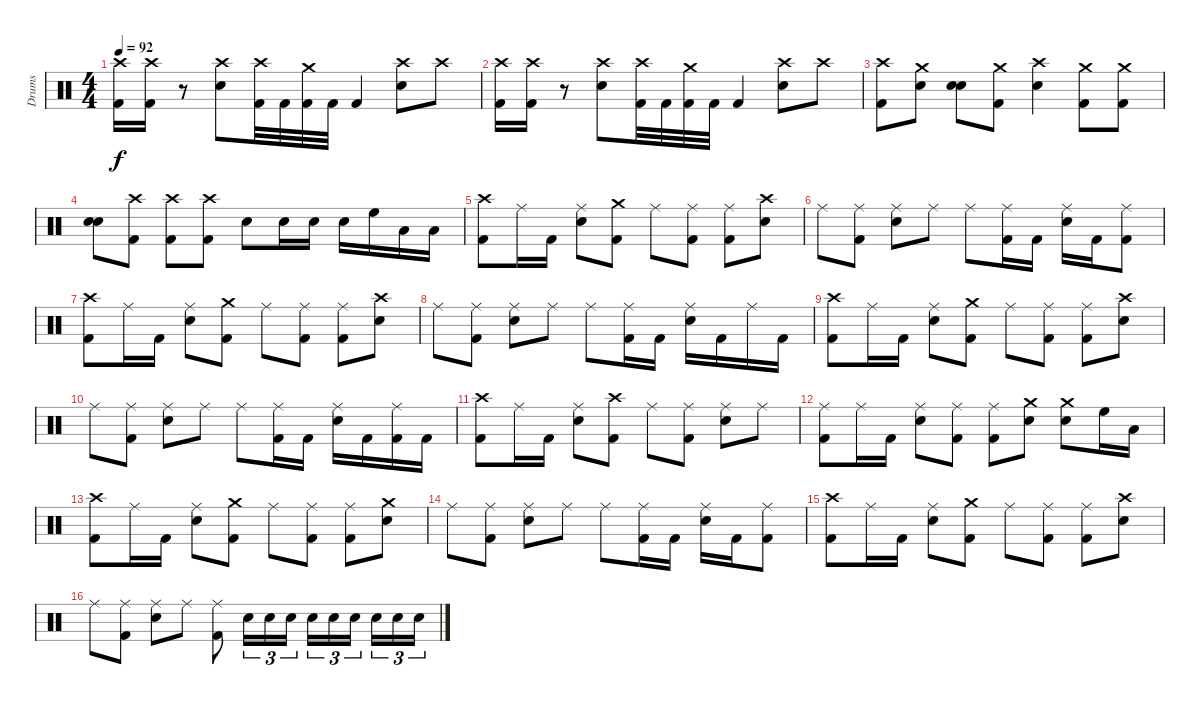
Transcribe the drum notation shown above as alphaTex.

\track ("Drums" "Drums") {instrument percussion}
\staff {score}
\articulation defaults
\ts (4 4)
\tempo 92
\clef neutral
\ks c
("Crash high (hit)" "Kick (hit) 2").16{dy f} ("Crash high (hit)" "Kick (hit) 2").16 r.8 ("Crash high (hit)" "Snare (hit) 2").8 ("Crash high (hit)" "Kick (hit) 2").32 "Kick (hit) 2".32 ("Crash medium (hit)" "Kick (hit) 2").32 "Kick (hit) 2".32 "Kick (hit) 2".4 ("Crash high (hit)" "Snare (hit) 2").8 "Crash high (hit)".8 |
("Crash high (hit)" "Kick (hit) 2").16 ("Crash high (hit)" "Kick (hit) 2").16 r.8 ("Crash high (hit)" "Snare (hit) 2").8 ("Crash high (hit)" "Kick (hit) 2").32 "Kick (hit) 2".32 ("Crash medium (hit)" "Kick (hit) 2").32 "Kick (hit) 2".32 "Kick (hit) 2".4 ("Crash high (hit)" "Snare (hit) 2").8 "Crash high (hit)".8 |
("Crash high (hit)" "Kick (hit) 2").8 ("Crash medium (hit)" "Snare (hit) 2").8 ("Snare (hit)" "Snare (hit)").8 ("Crash medium (hit)" "Kick (hit) 2").8 ("Crash high (hit)" "Snare (hit) 2").4 ("Crash medium (hit)" "Kick (hit) 2").8 ("Crash medium (hit)" "Kick (hit) 2").8 |
("Snare (hit)" "Snare (hit)").8 ("Crash high (hit)" "Kick (hit) 2").8 ("Crash high (hit)" "Kick (hit) 2").8 ("Crash high (hit)" "Kick (hit) 2").8 "Snare (hit) 2".8 "Snare (hit) 2".16 "Snare (hit) 2".16 "Snare (hit) 2".16 "High Floor Tom (hit)".16 "Low Tom (hit)".16 "Low Tom (hit)".16 |
("Crash high (hit)" "Kick (hit) 2").8 "Ride (middle)".16 "Kick (hit) 2".16 ("Ride (middle)" "Snare (hit) 2").8 ("Crash medium (hit)" "Kick (hit) 2").8 "Ride (middle)".8 ("Ride (middle)" "Kick (hit) 2").8 ("Ride (middle)" "Kick (hit) 2").8 ("Crash high (hit)" "Snare (hit) 2").8 |
"Ride (middle)".8 ("Ride (middle)" "Kick (hit) 2").8 ("Ride (middle)" "Snare (hit) 2").8 "Ride (middle)".8 "Ride (middle)".8 ("Ride (middle)" "Kick (hit) 2").16 "Kick (hit) 2".16 ("Ride (middle)" "Snare (hit) 2").16 "Kick (hit) 2".16 ("Ride (middle)" "Kick (hit) 2").8 |
("Crash high (hit)" "Kick (hit) 2").8 "Ride (middle)".16 "Kick (hit) 2".16 ("Ride (middle)" "Snare (hit) 2").8 ("Crash medium (hit)" "Kick (hit) 2").8 "Ride (middle)".8 ("Ride (middle)" "Kick (hit) 2").8 ("Ride (middle)" "Kick (hit) 2").8 ("Crash high (hit)" "Snare (hit) 2").8 |
"Ride (middle)".8 ("Ride (middle)" "Kick (hit) 2").8 ("Ride (middle)" "Snare (hit) 2").8 "Ride (middle)".8 "Ride (middle)".8 ("Ride (middle)" "Kick (hit) 2").16 "Kick (hit) 2".16 ("Ride (middle)" "Snare (hit) 2").16 "Kick (hit) 2".16 "Ride (middle)".16 "Kick (hit) 2".16 |
("Crash high (hit)" "Kick (hit) 2").8 "Ride (middle)".16 "Kick (hit) 2".16 ("Ride (middle)" "Snare (hit) 2").8 ("Crash medium (hit)" "Kick (hit) 2").8 "Ride (middle)".8 ("Ride (middle)" "Kick (hit) 2").8 ("Ride (middle)" "Kick (hit) 2").8 ("Crash high (hit)" "Snare (hit) 2").8 |
"Ride (middle)".8 ("Ride (middle)" "Kick (hit) 2").8 ("Ride (middle)" "Snare (hit) 2").8 "Ride (middle)".8 "Ride (middle)".8 ("Ride (middle)" "Kick (hit) 2").16 "Kick (hit) 2".16 ("Ride (middle)" "Snare (hit) 2").16 "Kick (hit) 2".16 ("Ride (middle)" "Kick (hit) 2").16 "Kick (hit) 2".16 |
("Crash high (hit)" "Kick (hit) 2").8 "Ride (middle)".16 "Kick (hit) 2".16 ("Ride (middle)" "Snare (hit) 2").8 ("Crash high (hit)" "Kick (hit) 2").8 "Ride (middle)".8 ("Ride (middle)" "Kick (hit) 2").8 ("Ride (middle)" "Snare (hit) 2").8 "Ride (middle)".8 |
("Ride (middle)" "Kick (hit) 2").8 "Ride (middle)".16 "Kick (hit) 2".16 ("Ride (middle)" "Snare (hit) 2").8 ("Ride (middle)" "Kick (hit) 2").8 ("Ride (middle)" "Kick (hit) 2").8 ("Crash medium (hit)" "Snare (hit) 2").8 ("Crash medium (hit)" "Snare (hit) 2").8 "High Floor Tom (hit)".16 "Low Tom (hit)".16 |
("Crash high (hit)" "Kick (hit) 2").8 "Ride (middle)".16 "Kick (hit) 2".16 ("Ride (middle)" "Snare (hit) 2").8 ("Crash medium (hit)" "Kick (hit) 2").8 "Ride (middle)".8 ("Ride (middle)" "Kick (hit) 2").8 ("Ride (middle)" "Kick (hit) 2").8 ("Crash medium (hit)" "Snare (hit) 2").8 |
"Ride (middle)".8 ("Ride (middle)" "Kick (hit) 2").8 ("Ride (middle)" "Snare (hit) 2").8 "Ride (middle)".8 "Ride (middle)".8 ("Ride (middle)" "Kick (hit) 2").16 "Kick (hit) 2".16 ("Ride (middle)" "Snare (hit) 2").16 "Kick (hit) 2".16 ("Ride (middle)" "Kick (hit) 2").8 |
("Crash high (hit)" "Kick (hit) 2").8 "Ride (middle)".16 "Kick (hit) 2".16 ("Ride (middle)" "Snare (hit) 2").8 ("Crash medium (hit)" "Kick (hit) 2").8 "Ride (middle)".8 ("Ride (middle)" "Kick (hit) 2").8 ("Ride (middle)" "Kick (hit) 2").8 ("Crash high (hit)" "Snare (hit) 2").8 |
"Ride (middle)".8 ("Ride (middle)" "Kick (hit) 2").8 ("Ride (middle)" "Snare (hit) 2").8 "Ride (middle)".8 ("Ride (middle)" "Kick (hit) 2").8 "Snare (hit) 2".16{tu (3 2)} "Snare (hit) 2".16{tu (3 2)} "Snare (hit) 2".16{tu (3 2)} "Snare (hit) 2".16{tu (3 2)} "Snare (hit) 2".16{tu (3 2)} "Snare (hit) 2".16{tu (3 2)} "Snare (hit) 2".16{tu (3 2)} "Snare (hit) 2".16{tu (3 2)} "Snare (hit) 2".16{tu (3 2)}
